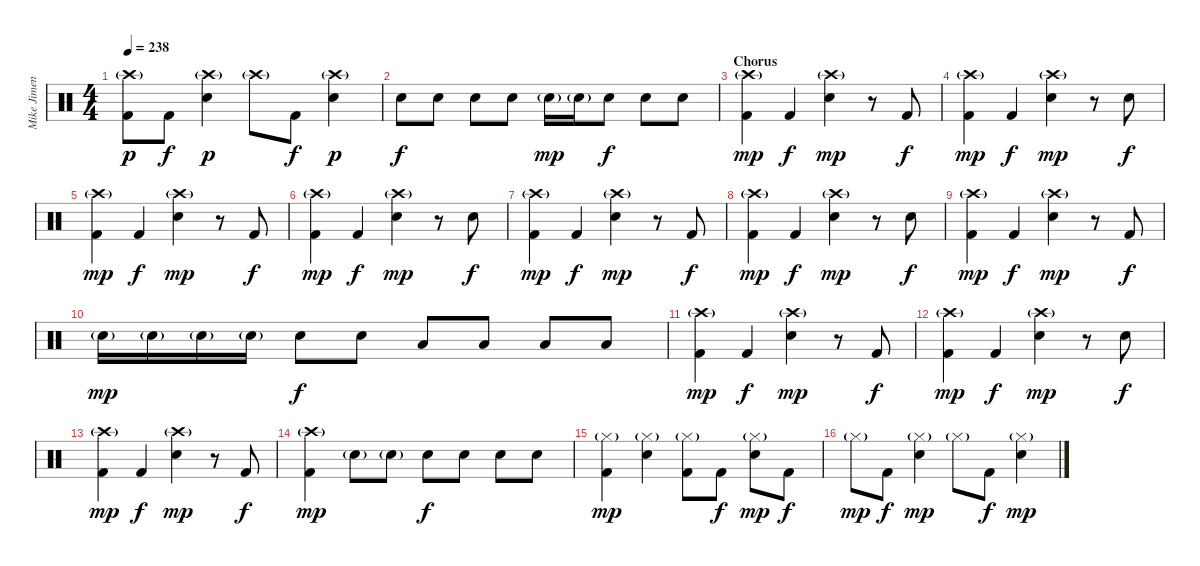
\track ("Mike Jimenez" "Mike Jimen") {instrument percussion}
\staff {score}
\articulation defaults
\ts (4 4)
\tempo 238
\clef neutral
\ks c
("Crash high (hit)"{g} "Kick (hit) 2").8{dy p} "Kick (hit) 2".8{dy f} ("Crash high (hit)"{g} "Electric Snare (hit)").4{dy p} "Crash high (hit)"{g}.8 "Kick (hit) 2".8{dy f} ("Crash high (hit)"{g} "Electric Snare (hit)").4{dy p} |
"Electric Snare (hit)".8{dy f} "Electric Snare (hit)".8 "Electric Snare (hit)".8 "Electric Snare (hit)".8 "Electric Snare (hit)"{g}.16{dy mp} "Electric Snare (hit)"{g}.16 "Electric Snare (hit)".8{dy f} "Electric Snare (hit)".8 "Electric Snare (hit)".8 |
\section ("" "Chorus")
("Crash high (hit)"{g} "Kick (hit) 2").4{dy mp} "Kick (hit) 2".4{dy f} ("Crash high (hit)"{g} "Electric Snare (hit)").4{dy mp} r.8 "Kick (hit) 2".8{dy f} |
("Crash high (hit)"{g} "Kick (hit) 2").4{dy mp} "Kick (hit) 2".4{dy f} ("Crash high (hit)"{g} "Electric Snare (hit)").4{dy mp} r.8 "Electric Snare (hit)".8{dy f} |
("Crash high (hit)"{g} "Kick (hit) 2").4{dy mp} "Kick (hit) 2".4{dy f} ("Crash high (hit)"{g} "Electric Snare (hit)").4{dy mp} r.8 "Kick (hit) 2".8{dy f} |
("Crash high (hit)"{g} "Kick (hit) 2").4{dy mp} "Kick (hit) 2".4{dy f} ("Crash high (hit)"{g} "Electric Snare (hit)").4{dy mp} r.8 "Electric Snare (hit)".8{dy f} |
("Crash high (hit)"{g} "Kick (hit) 2").4{dy mp} "Kick (hit) 2".4{dy f} ("Crash high (hit)"{g} "Electric Snare (hit)").4{dy mp} r.8 "Kick (hit) 2".8{dy f} |
("Crash high (hit)"{g} "Kick (hit) 2").4{dy mp} "Kick (hit) 2".4{dy f} ("Crash high (hit)"{g} "Electric Snare (hit)").4{dy mp} r.8 "Electric Snare (hit)".8{dy f} |
("Crash high (hit)"{g} "Kick (hit) 2").4{dy mp} "Kick (hit) 2".4{dy f} ("Crash high (hit)"{g} "Electric Snare (hit)").4{dy mp} r.8 "Kick (hit) 2".8{dy f} |
"Electric Snare (hit)"{g}.16{dy mp} "Electric Snare (hit)"{g}.16 "Electric Snare (hit)"{g}.16 "Electric Snare (hit)"{g}.16 "Electric Snare (hit)".8{dy f} "Electric Snare (hit)".8 "Low Tom (hit)".8 "Low Tom (hit)".8 "Low Floor Tom (hit)".8 "Low Floor Tom (hit)".8 |
("Crash high (hit)"{g} "Kick (hit) 2").4{dy mp} "Kick (hit) 2".4{dy f} ("Crash high (hit)"{g} "Electric Snare (hit)").4{dy mp} r.8 "Kick (hit) 2".8{dy f} |
("Crash high (hit)"{g} "Kick (hit) 2").4{dy mp} "Kick (hit) 2".4{dy f} ("Crash high (hit)"{g} "Electric Snare (hit)").4{dy mp} r.8 "Electric Snare (hit)".8{dy f} |
("Crash high (hit)"{g} "Kick (hit) 2").4{dy mp} "Kick (hit) 2".4{dy f} ("Crash high (hit)"{g} "Electric Snare (hit)").4{dy mp} r.8 "Kick (hit) 2".8{dy f} |
("Crash high (hit)"{g} "Kick (hit) 2").4{dy mp} "Electric Snare (hit)"{g}.8 "Electric Snare (hit)"{g}.8 "Electric Snare (hit)".8{dy f} "Electric Snare (hit)".8 "Electric Snare (hit)".8 "Electric Snare (hit)".8 |
("Hi-Hat (closed)"{g} "Kick (hit) 2").4{dy mp} ("Hi-Hat (closed)"{g} "Electric Snare (hit)").4 ("Hi-Hat (closed)"{g} "Kick (hit) 2").8 "Kick (hit) 2".8{dy f} ("Hi-Hat (closed)"{g} "Electric Snare (hit)").8{dy mp} "Kick (hit) 2".8{dy f} |
"Hi-Hat (closed)"{g}.8{dy mp} "Kick (hit) 2".8{dy f} ("Hi-Hat (closed)"{g} "Electric Snare (hit)").4{dy mp} "Hi-Hat (closed)"{g}.8 "Kick (hit) 2".8{dy f} ("Hi-Hat (closed)"{g} "Electric Snare (hit)").4{dy mp}
